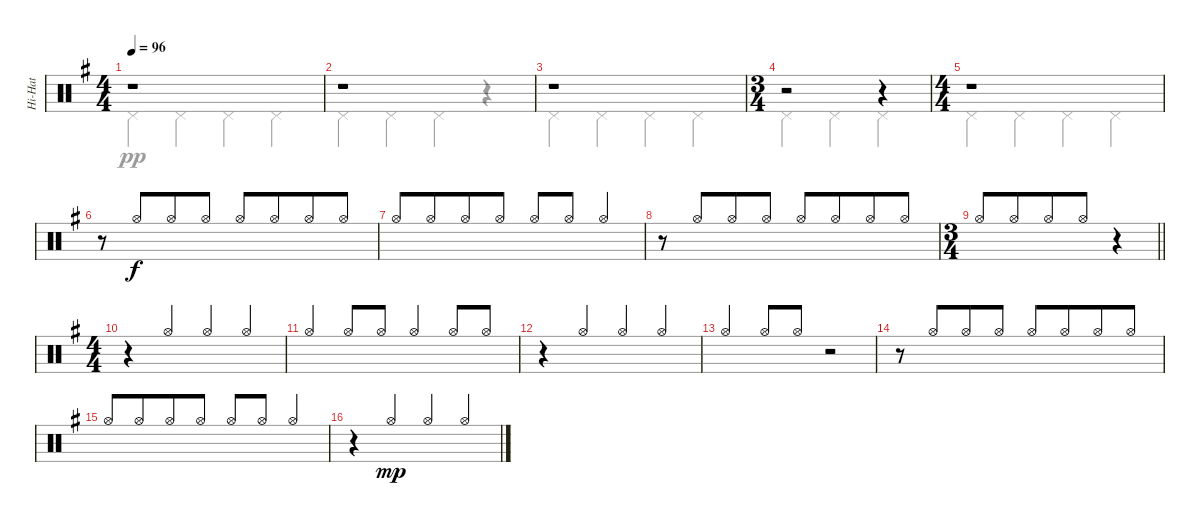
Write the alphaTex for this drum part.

\track ("Hi-Hat" "Hi-Hat") {instrument percussion}
\staff {score}
\articulation defaults
\voice
\ts (4 4)
\tempo 96
\clef neutral
\ks g
r.1{dy f balance 11} |
r.1 |
r.1 |
\ts (3 4)
r.2 r.4 |
\ts (4 4)
r.1 |
r.8 "Hi-Hat (open)".8{beam Up beam merge} "Hi-Hat (open)".8{beam Up} "Hi-Hat (open)".8{beam Up} "Hi-Hat (open)".8{beam Up} "Hi-Hat (open)".8{beam Up beam merge} "Hi-Hat (open)".8{beam Up} "Hi-Hat (open)".8{beam Up} |
"Hi-Hat (open)".8{beam Up} "Hi-Hat (open)".8{beam Up beam merge} "Hi-Hat (open)".8{beam Up} "Hi-Hat (open)".8{beam Up} "Hi-Hat (open)".8{beam Up} "Hi-Hat (open)".8{beam Up} "Hi-Hat (open)".4{beam Up} |
r.8 "Hi-Hat (open)".8{beam Up beam merge} "Hi-Hat (open)".8{beam Up} "Hi-Hat (open)".8{beam Up} "Hi-Hat (open)".8{beam Up} "Hi-Hat (open)".8{beam Up beam merge} "Hi-Hat (open)".8{beam Up} "Hi-Hat (open)".8{beam Up} |
\ts (3 4)
\barLineRight lightlight "Hi-Hat (open)".8{beam Up} "Hi-Hat (open)".8{beam Up beam merge} "Hi-Hat (open)".8{beam Up} "Hi-Hat (open)".8{beam Up}
r.4 |
\ts (4 4)
r.4 "Hi-Hat (open)".4{beam Up} "Hi-Hat (open)".4{beam Up} "Hi-Hat (open)".4{beam Up} |
"Hi-Hat (open)".4{beam Up} "Hi-Hat (open)".8{beam Up} "Hi-Hat (open)".8{beam Up} "Hi-Hat (open)".4{beam Up} "Hi-Hat (open)".8{beam Up} "Hi-Hat (open)".8{beam Up} |
r.4 "Hi-Hat (open)".4{beam Up} "Hi-Hat (open)".4{beam Up} "Hi-Hat (open)".4{beam Up} |
"Hi-Hat (open)".4{beam Up} "Hi-Hat (open)".8{beam Up} "Hi-Hat (open)".8{beam Up} r.2 |
r.8 "Hi-Hat (open)".8{beam Up beam merge} "Hi-Hat (open)".8{beam Up} "Hi-Hat (open)".8{beam Up} "Hi-Hat (open)".8{beam Up} "Hi-Hat (open)".8{beam Up beam merge} "Hi-Hat (open)".8{beam Up} "Hi-Hat (open)".8{beam Up} |
"Hi-Hat (open)".8{beam Up} "Hi-Hat (open)".8{beam Up beam merge} "Hi-Hat (open)".8{beam Up} "Hi-Hat (open)".8{beam Up} "Hi-Hat (open)".8{beam Up} "Hi-Hat (open)".8{beam Up} "Hi-Hat (open)".4{beam Up} |
r.4 "Hi-Hat (open)".4{dy mp beam Up} "Hi-Hat (open)".4{beam Up} "Hi-Hat (open)".4{beam Up}
\voice
\clef neutral
\ottava regular
\simile none
\ks g "Pedal Hi-Hat (hit)".4{dy pp} "Pedal Hi-Hat (hit)".4 "Pedal Hi-Hat (hit)".4 "Pedal Hi-Hat (hit)".4
|
"Pedal Hi-Hat (hit)".4 "Pedal Hi-Hat (hit)".4 "Pedal Hi-Hat (hit)".4 r.4 |
"Pedal Hi-Hat (hit)".4 "Pedal Hi-Hat (hit)".4 "Pedal Hi-Hat (hit)".4 "Pedal Hi-Hat (hit)".4 |
"Pedal Hi-Hat (hit)".4 "Pedal Hi-Hat (hit)".4 "Pedal Hi-Hat (hit)".4 |
"Pedal Hi-Hat (hit)".4 "Pedal Hi-Hat (hit)".4 "Pedal Hi-Hat (hit)".4 "Pedal Hi-Hat (hit)".4 |
|
|
|
\barLineRight lightlight
|
|
|
|
|
|
|
